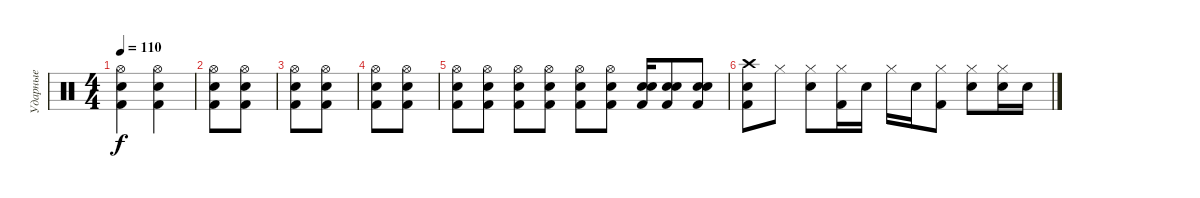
\track ("Ударные" "Ударные") {instrument percussion}
\staff {score}
\articulation defaults
\ts (4 4)
\tempo 110
\clef neutral
\ks c
("Kick (hit) 2" "Electric Snare (hit)" "Hi-Hat (open)").4{dy f} ("Kick (hit) 2" "Electric Snare (hit)" "Hi-Hat (open)").4 |
("Kick (hit) 2" "Electric Snare (hit)" "Hi-Hat (open)").8 ("Kick (hit) 2" "Electric Snare (hit)" "Hi-Hat (open)").8 |
("Kick (hit) 2" "Electric Snare (hit)" "Hi-Hat (open)").8 ("Kick (hit) 2" "Electric Snare (hit)" "Hi-Hat (open)").8 |
("Kick (hit) 2" "Electric Snare (hit)" "Hi-Hat (open)").8 ("Kick (hit) 2" "Electric Snare (hit)" "Hi-Hat (open)").8 |
("Kick (hit) 2" "Electric Snare (hit)" "Hi-Hat (open)").8 ("Kick (hit) 2" "Electric Snare (hit)" "Hi-Hat (open)").8 ("Kick (hit) 2" "Electric Snare (hit)" "Hi-Hat (open)").8 ("Kick (hit) 2" "Electric Snare (hit)" "Hi-Hat (open)").8 ("Kick (hit) 2" "Electric Snare (hit)" "Hi-Hat (open)").8 ("Kick (hit) 2" "Electric Snare (hit)" "Hi-Hat (open)").8 ("Kick (hit) 2" "Electric Snare (hit)" "Snare (hit)").16 ("Kick (hit) 2" "Electric Snare (hit)" "Snare (hit)").8 ("Kick (hit) 2" "Electric Snare (hit)" "Snare (hit)").8 |
("Crash high (hit)" "Snare (hit)" "Kick (hit) 2").8 "Hi-Hat (closed)".8 ("Hi-Hat (closed)" "Electric Snare (hit)").8 ("Hi-Hat (closed)" "Kick (hit) 2").16 "Electric Snare (hit)".16 "Hi-Hat (closed)".16 "Electric Snare (hit)".16 ("Hi-Hat (closed)" "Kick (hit) 2").8 ("Hi-Hat (closed)" "Electric Snare (hit)").8 ("Hi-Hat (closed)" "Snare (hit)").16 "Snare (hit)".16
